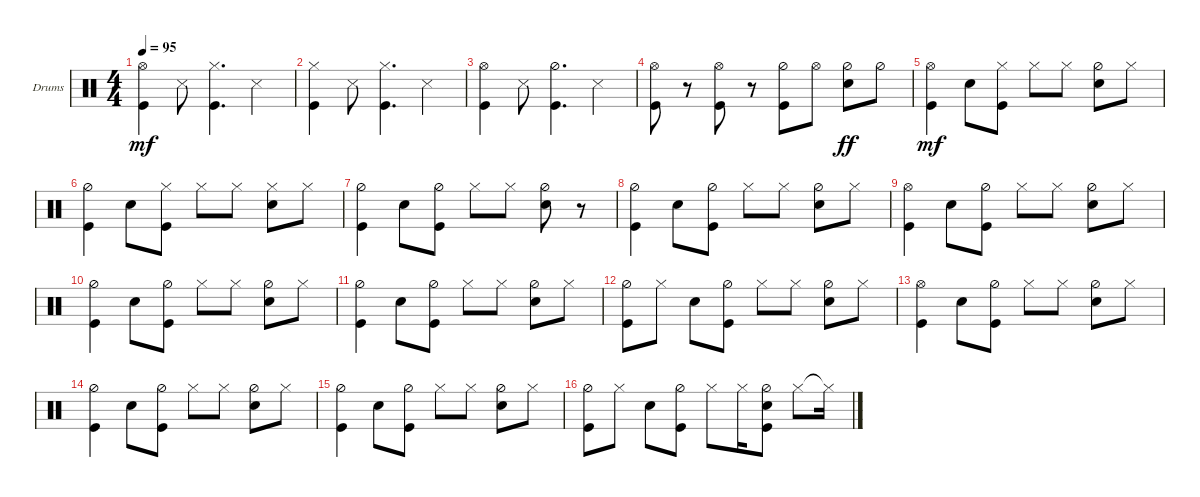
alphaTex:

\defaultSystemsLayout 4
\bracketExtendMode groupsimilarinstruments
\firstSystemTrackNameOrientation horizontal
\otherSystemsTrackNameOrientation horizontal
\track ("Drums" "Drums") {instrument percussion}
\staff {score}
\articulation defaults
\ts (4 4)
\tempo 95
\clef neutral
\scale
0.333333
\ks c
("Kick (hit)" "Hi-Hat (open)").4{dy mf} "Snare (side stick) 3".8 ("Kick (hit)" "Hi-Hat (closed)").4{d} "Snare (side stick) 3".4 |
\scale
0.333333 ("Kick (hit)" "Hi-Hat (closed)").4 "Snare (side stick) 3".8 ("Kick (hit)" "Hi-Hat (closed)").4{d} "Snare (side stick) 3".4 |
\scale
0.333333 ("Kick (hit)" "Hi-Hat (open)").4 "Snare (side stick) 3".8 ("Kick (hit)" "Hi-Hat (half)").4{d} "Snare (side stick) 3".4 |
\scale
0.333333 ("Kick (hit)" "Hi-Hat (open)").8 r.8 ("Kick (hit)" "Hi-Hat (open)").8 r.8 ("Kick (hit)" "Hi-Hat (half)").8 "Hi-Hat (open)".8 ("Snare (hit) 2" "Hi-Hat (half)").8{dy ff} "Hi-Hat (half)".8 |
\scale
0.333333 ("Kick (hit)" "Hi-Hat (open)").4{dy mf} "Snare (hit) 2".8 ("Kick (hit)" "Hi-Hat (closed)").8 "Hi-Hat (closed)".8 "Hi-Hat (closed)".8 ("Snare (hit) 2" "Hi-Hat (half)").8 "Hi-Hat (closed)".8 |
\scale
0.333333 ("Kick (hit)" "Hi-Hat (half)").4 "Snare (hit) 2".8 ("Kick (hit)" "Hi-Hat (closed)").8 "Hi-Hat (closed)".8 "Hi-Hat (closed)".8 ("Snare (hit) 2" "Hi-Hat (closed)").8 "Hi-Hat (closed)".8 |
\scale
0.333333 ("Kick (hit)" "Hi-Hat (half)").4 "Snare (hit) 2".8 ("Kick (hit)" "Hi-Hat (half)").8 "Hi-Hat (closed)".8 "Hi-Hat (closed)".8 ("Snare (hit) 2" "Hi-Hat (half)").8 r.8 |
\scale
0.333333 ("Kick (hit)" "Hi-Hat (half)").4 "Snare (hit) 2".8 ("Kick (hit)" "Hi-Hat (half)").8 "Hi-Hat (closed)".8 "Hi-Hat (closed)".8 ("Snare (hit) 2" "Hi-Hat (half)").8 "Hi-Hat (closed)".8 |
\scale
0.333333 ("Kick (hit)" "Hi-Hat (open)").4 "Snare (hit) 2".8 ("Kick (hit)" "Hi-Hat (half)").8 "Hi-Hat (closed)".8 "Hi-Hat (closed)".8 ("Snare (hit) 2" "Hi-Hat (half)").8 "Hi-Hat (closed)".8 |
\scale
0.333333 ("Kick (hit)" "Hi-Hat (half)").4 "Snare (hit) 2".8 ("Kick (hit)" "Hi-Hat (half)").8 "Hi-Hat (closed)".8 "Hi-Hat (closed)".8 ("Snare (hit) 2" "Hi-Hat (half)").8 "Hi-Hat (closed)".8 |
\scale
0.333333 ("Kick (hit)" "Hi-Hat (half)").4 "Snare (hit) 2".8 ("Kick (hit)" "Hi-Hat (half)").8 "Hi-Hat (closed)".8 "Hi-Hat (closed)".8 ("Snare (hit) 2" "Hi-Hat (half)").8 "Hi-Hat (closed)".8 |
("Kick (hit)" "Hi-Hat (half)").8 "Hi-Hat (closed)".8 "Snare (hit) 2".8 ("Kick (hit)" "Hi-Hat (half)").8 "Hi-Hat (closed)".8 "Hi-Hat (closed)".8 ("Snare (hit) 2" "Hi-Hat (half)").8 "Hi-Hat (closed)".8 |
("Kick (hit)" "Hi-Hat (open)").4 "Snare (hit) 2".8 ("Kick (hit)" "Hi-Hat (half)").8 "Hi-Hat (closed)".8 "Hi-Hat (closed)".8 ("Snare (hit) 2" "Hi-Hat (half)").8 "Hi-Hat (closed)".8 |
("Kick (hit)" "Hi-Hat (half)").4 "Snare (hit) 2".8 ("Kick (hit)" "Hi-Hat (half)").8 "Hi-Hat (closed)".8 "Hi-Hat (closed)".8 ("Snare (hit) 2" "Hi-Hat (half)").8 "Hi-Hat (closed)".8 |
("Kick (hit)" "Hi-Hat (half)").4 "Snare (hit) 2".8 ("Kick (hit)" "Hi-Hat (half)").8 "Hi-Hat (closed)".8 "Hi-Hat (closed)".8 ("Snare (hit) 2" "Hi-Hat (half)").8 "Hi-Hat (closed)".8 |
("Kick (hit)" "Hi-Hat (half)").8 "Hi-Hat (closed)".8 "Snare (hit) 2".8 ("Kick (hit)" "Hi-Hat (half)").8 "Hi-Hat (closed)".8 "Hi-Hat (closed)".16 ("Snare (hit) 2" "Hi-Hat (half)" "Kick (hit)").8 "Hi-Hat (closed)".8 "Hi-Hat (closed)"{t}.16
